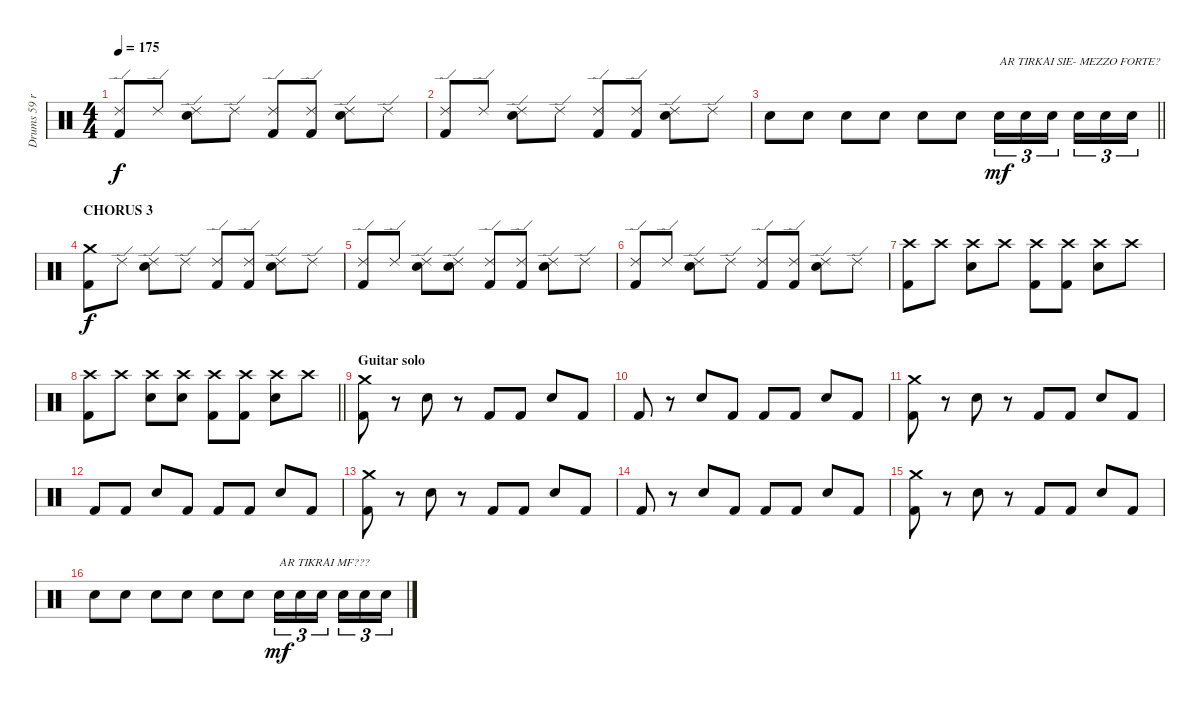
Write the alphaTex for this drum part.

\track ("Drums 59 ride" "Drums 59 r") {instrument percussion}
\staff {score}
\articulation defaults
\ts (4 4)
\tempo 175
\clef neutral
\ks c
("Ride (edge) 2" "Kick (hit) 2").8{dy f} "Ride (edge) 2".8 ("Ride (edge) 2" "Snare (hit) 2").8 "Ride (edge) 2".8 ("Ride (edge) 2" "Kick (hit) 2").8 ("Ride (edge) 2" "Kick (hit) 2").8 ("Ride (edge) 2" "Snare (hit) 2").8 "Ride (edge) 2".8 |
("Ride (edge) 2" "Kick (hit) 2").8 "Ride (edge) 2".8 ("Ride (edge) 2" "Snare (hit) 2").8 "Ride (edge) 2".8 ("Ride (edge) 2" "Kick (hit) 2").8 ("Ride (edge) 2" "Kick (hit) 2").8 ("Ride (edge) 2" "Snare (hit) 2").8 "Ride (edge) 2".8 |
\barLineRight lightlight "Snare (hit) 2".8 "Snare (hit) 2".8 "Snare (hit) 2".8 "Snare (hit) 2".8 "Snare (hit) 2".8 "Snare (hit) 2".8 "Snare (hit) 2".16{tu (3 2) txt "AR TIRKAI SIE- MEZZO FORTE?" dy mf} "Snare (hit) 2".16{tu (3 2)} "Snare (hit) 2".16{tu (3 2) beam splitsecondary} "Snare (hit) 2".16{tu (3 2)} "Snare (hit) 2".16{tu (3 2)} "Snare (hit) 2".16{tu (3 2)}
|
\section ("" "CHORUS 3")
("Crash medium (hit)" "Kick (hit) 2").8{dy f} "Ride (edge) 2".8 ("Ride (edge) 2" "Snare (hit) 2").8 "Ride (edge) 2".8 ("Ride (edge) 2" "Kick (hit) 2").8 ("Ride (edge) 2" "Kick (hit) 2").8 ("Ride (edge) 2" "Snare (hit) 2").8 "Ride (edge) 2".8 |
("Ride (edge) 2" "Kick (hit) 2").8 "Ride (edge) 2".8 ("Ride (edge) 2" "Snare (hit) 2").8 ("Ride (edge) 2" "Snare (hit) 2").8 ("Ride (edge) 2" "Kick (hit) 2").8 ("Ride (edge) 2" "Kick (hit) 2").8 ("Ride (edge) 2" "Snare (hit) 2").8 "Ride (edge) 2".8 |
("Ride (edge) 2" "Kick (hit) 2").8 "Ride (edge) 2".8 ("Ride (edge) 2" "Snare (hit) 2").8 "Ride (edge) 2".8 ("Ride (edge) 2" "Kick (hit) 2").8 ("Ride (edge) 2" "Kick (hit) 2").8 ("Ride (edge) 2" "Snare (hit) 2").8 "Ride (edge) 2".8 |
("Crash high (hit)" "Kick (hit) 2").8 "Crash high (hit)".8 ("Crash high (hit)" "Snare (hit) 2").8 "Crash high (hit)".8 ("Crash high (hit)" "Kick (hit) 2").8 ("Crash high (hit)" "Kick (hit) 2").8 ("Crash high (hit)" "Snare (hit) 2").8 "Crash high (hit)".8 |
\barLineRight lightlight
("Crash high (hit)" "Kick (hit) 2").8 "Crash high (hit)".8 ("Crash high (hit)" "Snare (hit) 2").8 ("Crash high (hit)" "Snare (hit) 2").8 ("Crash high (hit)" "Kick (hit) 2").8 ("Crash high (hit)" "Kick (hit) 2").8 ("Crash high (hit)" "Snare (hit) 2").8 "Crash high (hit)".8 |
\section ("" "Guitar solo")
("Crash medium (hit)" "Kick (hit) 2").8 r.8 "Snare (hit) 2".8 r.8 "Kick (hit) 2".8 "Kick (hit) 2".8 "Snare (hit) 2".8 "Kick (hit) 2".8 |
"Kick (hit) 2".8 r.8 "Snare (hit) 2".8 "Kick (hit) 2".8 "Kick (hit) 2".8 "Kick (hit) 2".8 "Snare (hit) 2".8 "Kick (hit) 2".8 |
("Crash medium (hit)" "Kick (hit) 2").8 r.8 "Snare (hit) 2".8 r.8 "Kick (hit) 2".8 "Kick (hit) 2".8 "Snare (hit) 2".8 "Kick (hit) 2".8 |
"Kick (hit) 2".8 "Kick (hit) 2".8 "Snare (hit) 2".8 "Kick (hit) 2".8 "Kick (hit) 2".8 "Kick (hit) 2".8 "Snare (hit) 2".8 "Kick (hit) 2".8 |
("Crash medium (hit)" "Kick (hit) 2").8 r.8 "Snare (hit) 2".8 r.8 "Kick (hit) 2".8 "Kick (hit) 2".8 "Snare (hit) 2".8 "Kick (hit) 2".8 |
"Kick (hit) 2".8 r.8 "Snare (hit) 2".8 "Kick (hit) 2".8 "Kick (hit) 2".8 "Kick (hit) 2".8 "Snare (hit) 2".8 "Kick (hit) 2".8 |
("Crash medium (hit)" "Kick (hit) 2").8 r.8 "Snare (hit) 2".8 r.8 "Kick (hit) 2".8 "Kick (hit) 2".8 "Snare (hit) 2".8 "Kick (hit) 2".8 |
"Snare (hit) 2".8 "Snare (hit) 2".8 "Snare (hit) 2".8 "Snare (hit) 2".8 "Snare (hit) 2".8 "Snare (hit) 2".8 "Snare (hit) 2".16{tu (3 2) txt "AR TIKRAI MF???" dy mf} "Snare (hit) 2".16{tu (3 2)} "Snare (hit) 2".16{tu (3 2) beam splitsecondary} "Snare (hit) 2".16{tu (3 2)} "Snare (hit) 2".16{tu (3 2)} "Snare (hit) 2".16{tu (3 2)}
